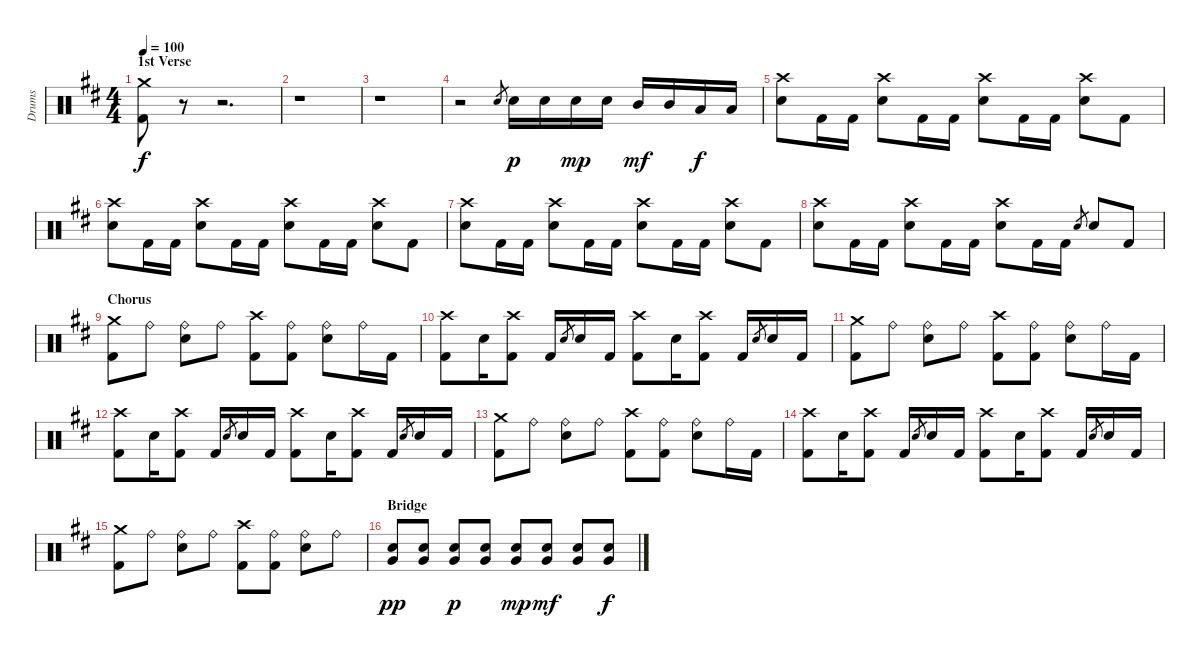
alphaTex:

\track ("Drums" "Drums") {instrument percussion}
\staff {score}
\articulation defaults
\ts (4 4)
\section ("" "1st Verse")
\tempo 100
\clef neutral
\ks bminor
("Crash medium (hit)" "Kick (hit) 2").8{dy f} r.8 r.2{d} |
r.1 |
r.1 |
r.2 "Snare (hit) 2".8{gr} "Snare (hit) 2".16{dy p} "Snare (hit) 2".16 "Snare (hit) 2".16{dy mp} "Snare (hit) 2".16 "Mid Tom (hit)".16{dy mf} "Mid Tom (hit)".16 "Low Tom (hit)".16{dy f} "Low Tom (hit)".16 |
("Crash high (hit)" "Snare (hit) 2").8 "Kick (hit) 2".16 "Kick (hit) 2".16 ("Crash high (hit)" "Snare (hit) 2").8 "Kick (hit) 2".16 "Kick (hit) 2".16 ("Crash high (hit)" "Snare (hit) 2").8 "Kick (hit) 2".16 "Kick (hit) 2".16 ("Crash high (hit)" "Snare (hit) 2").8 "Kick (hit) 2".8 |
("Crash high (hit)" "Snare (hit) 2").8 "Kick (hit) 2".16 "Kick (hit) 2".16 ("Crash high (hit)" "Snare (hit) 2").8 "Kick (hit) 2".16 "Kick (hit) 2".16 ("Crash high (hit)" "Snare (hit) 2").8 "Kick (hit) 2".16 "Kick (hit) 2".16 ("Crash high (hit)" "Snare (hit) 2").8 "Kick (hit) 2".8 |
("Crash high (hit)" "Snare (hit) 2").8 "Kick (hit) 2".16 "Kick (hit) 2".16 ("Crash high (hit)" "Snare (hit) 2").8 "Kick (hit) 2".16 "Kick (hit) 2".16 ("Crash high (hit)" "Snare (hit) 2").8 "Kick (hit) 2".16 "Kick (hit) 2".16 ("Crash high (hit)" "Snare (hit) 2").8 "Kick (hit) 2".8 |
("Crash high (hit)" "Snare (hit) 2").8 "Kick (hit) 2".16 "Kick (hit) 2".16 ("Crash high (hit)" "Snare (hit) 2").8 "Kick (hit) 2".16 "Kick (hit) 2".16 ("Crash high (hit)" "Snare (hit) 2").8 "Kick (hit) 2".16 "Kick (hit) 2".16 "Snare (hit) 2".8{gr} "Snare (hit) 2".8 "Kick (hit) 2".8 |
\section ("" "Chorus")
("Crash medium (hit)" "Kick (hit) 2").8 "Ride (bell)".8 ("Ride (bell)" "Snare (hit) 2").8 "Ride (bell)".8 ("Crash high (hit)" "Kick (hit) 2").8 ("Ride (bell)" "Kick (hit) 2").8 ("Ride (bell)" "Snare (hit) 2").8 "Ride (bell)".16 "Kick (hit) 2".16 |
("Crash high (hit)" "Kick (hit) 2").8 "Snare (hit) 2".16 ("Crash high (hit)" "Kick (hit) 2").8 "Kick (hit) 2".16 "Snare (hit) 2".8{gr} "Snare (hit) 2".16 "Kick (hit) 2".16 ("Crash high (hit)" "Kick (hit) 2").8 "Snare (hit) 2".16 ("Crash high (hit)" "Kick (hit) 2").8 "Kick (hit) 2".16 "Snare (hit) 2".8{gr} "Snare (hit) 2".16 "Kick (hit) 2".16 |
("Crash medium (hit)" "Kick (hit) 2").8 "Ride (bell)".8 ("Ride (bell)" "Snare (hit) 2").8 "Ride (bell)".8 ("Crash high (hit)" "Kick (hit) 2").8 ("Ride (bell)" "Kick (hit) 2").8 ("Ride (bell)" "Snare (hit) 2").8 "Ride (bell)".16 "Kick (hit) 2".16 |
("Crash high (hit)" "Kick (hit) 2").8 "Snare (hit) 2".16 ("Crash high (hit)" "Kick (hit) 2").8 "Kick (hit) 2".16 "Snare (hit) 2".8{gr} "Snare (hit) 2".16 "Kick (hit) 2".16 ("Crash high (hit)" "Kick (hit) 2").8 "Snare (hit) 2".16 ("Crash high (hit)" "Kick (hit) 2").8 "Kick (hit) 2".16 "Snare (hit) 2".8{gr} "Snare (hit) 2".16 "Kick (hit) 2".16 |
("Crash medium (hit)" "Kick (hit) 2").8 "Ride (bell)".8 ("Ride (bell)" "Snare (hit) 2").8 "Ride (bell)".8 ("Crash high (hit)" "Kick (hit) 2").8 ("Ride (bell)" "Kick (hit) 2").8 ("Ride (bell)" "Snare (hit) 2").8 "Ride (bell)".16 "Kick (hit) 2".16 |
("Crash high (hit)" "Kick (hit) 2").8 "Snare (hit) 2".16 ("Crash high (hit)" "Kick (hit) 2").8 "Kick (hit) 2".16 "Snare (hit) 2".8{gr} "Snare (hit) 2".16 "Kick (hit) 2".16 ("Crash high (hit)" "Kick (hit) 2").8 "Snare (hit) 2".16 ("Crash high (hit)" "Kick (hit) 2").8 "Kick (hit) 2".16 "Snare (hit) 2".8{gr} "Snare (hit) 2".16 "Kick (hit) 2".16 |
("Crash medium (hit)" "Kick (hit) 2").8 "Ride (bell)".8 ("Ride (bell)" "Snare (hit) 2").8 "Ride (bell)".8 ("Crash high (hit)" "Kick (hit) 2").8 ("Ride (bell)" "Kick (hit) 2").8 ("Ride (bell)" "Snare (hit) 2").8 "Ride (bell)".8 |
\section ("" "Bridge")
("Very Low Tom (hit)" "Snare (hit) 2").8{dy pp} ("Very Low Tom (hit)" "Snare (hit) 2").8 ("Very Low Tom (hit)" "Snare (hit) 2").8{dy p} ("Very Low Tom (hit)" "Snare (hit) 2").8 ("Very Low Tom (hit)" "Snare (hit) 2").8{dy mp} ("Very Low Tom (hit)" "Snare (hit) 2").8{dy mf} ("Very Low Tom (hit)" "Snare (hit) 2").8 ("Very Low Tom (hit)" "Snare (hit) 2").8{dy f}
